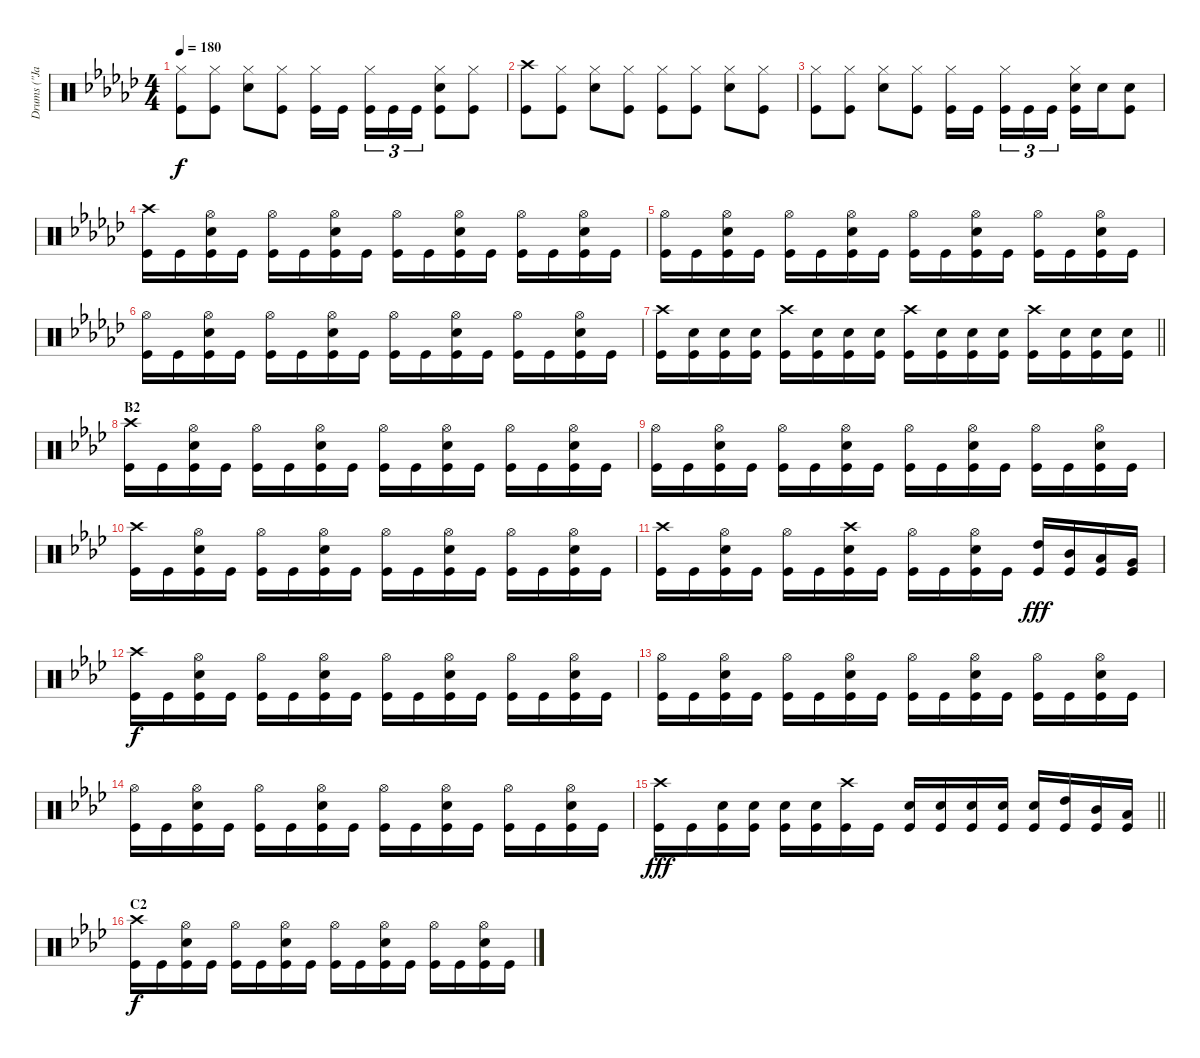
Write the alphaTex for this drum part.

\track ("Drums (\"Jane\")" "Drums (\"Ja") {instrument percussion}
\staff {score}
\articulation defaults
\ts (4 4)
\tempo 180
\clef neutral
\ks gb
("Hi-Hat (closed)" "Kick (hit)").8{dy f} ("Hi-Hat (closed)" "Kick (hit)").8 ("Hi-Hat (closed)" "Snare (hit) 2").8 ("Hi-Hat (closed)" "Kick (hit)").8 ("Hi-Hat (closed)" "Kick (hit)").16 "Kick (hit)".16{beam splitsecondary} ("Hi-Hat (closed)" "Kick (hit)").16{tu (3 2)} "Kick (hit)".16{tu (3 2)} "Kick (hit)".16{tu (3 2)} ("Hi-Hat (closed)" "Snare (hit) 2" "Kick (hit)").8 ("Hi-Hat (closed)" "Kick (hit)").8 |
("Crash high (hit)" "Kick (hit)").8 ("Hi-Hat (closed)" "Kick (hit)").8 ("Hi-Hat (closed)" "Snare (hit) 2").8 ("Hi-Hat (closed)" "Kick (hit)").8 ("Hi-Hat (closed)" "Kick (hit)").8 ("Hi-Hat (closed)" "Kick (hit)").8 ("Hi-Hat (closed)" "Snare (hit) 2").8 ("Hi-Hat (closed)" "Kick (hit)").8 |
("Hi-Hat (closed)" "Kick (hit)").8 ("Hi-Hat (closed)" "Kick (hit)").8 ("Hi-Hat (closed)" "Snare (hit) 2").8 ("Hi-Hat (closed)" "Kick (hit)").8 ("Hi-Hat (closed)" "Kick (hit)").16 "Kick (hit)".16{beam splitsecondary} ("Hi-Hat (closed)" "Kick (hit)").16{tu (3 2)} "Kick (hit)".16{tu (3 2)} "Kick (hit)".16{tu (3 2)} ("Hi-Hat (closed)" "Snare (hit) 2" "Kick (hit)").16 "Snare (hit) 2".16 ("Snare (hit) 2" "Kick (hit)").8 |
("Crash high (hit)" "Kick (hit)").16 "Kick (hit)".16 ("Hi-Hat (open)" "Snare (hit) 2" "Kick (hit)").16 "Kick (hit)".16 ("Hi-Hat (open)" "Kick (hit)").16 "Kick (hit)".16 ("Hi-Hat (open)" "Snare (hit) 2" "Kick (hit)").16 "Kick (hit)".16 ("Hi-Hat (open)" "Kick (hit)").16 "Kick (hit)".16 ("Hi-Hat (open)" "Snare (hit) 2" "Kick (hit)").16 "Kick (hit)".16 ("Hi-Hat (open)" "Kick (hit)").16 "Kick (hit)".16 ("Hi-Hat (open)" "Snare (hit) 2" "Kick (hit)").16 "Kick (hit)".16 |
("Hi-Hat (open)" "Kick (hit)").16 "Kick (hit)".16 ("Hi-Hat (open)" "Snare (hit) 2" "Kick (hit)").16 "Kick (hit)".16 ("Hi-Hat (open)" "Kick (hit)").16 "Kick (hit)".16 ("Hi-Hat (open)" "Snare (hit) 2" "Kick (hit)").16 "Kick (hit)".16 ("Hi-Hat (open)" "Kick (hit)").16 "Kick (hit)".16 ("Hi-Hat (open)" "Snare (hit) 2" "Kick (hit)").16 "Kick (hit)".16 ("Hi-Hat (open)" "Kick (hit)").16 "Kick (hit)".16 ("Hi-Hat (open)" "Snare (hit) 2" "Kick (hit)").16 "Kick (hit)".16 |
("Hi-Hat (open)" "Kick (hit)").16 "Kick (hit)".16 ("Hi-Hat (open)" "Snare (hit) 2" "Kick (hit)").16 "Kick (hit)".16 ("Hi-Hat (open)" "Kick (hit)").16 "Kick (hit)".16 ("Hi-Hat (open)" "Snare (hit) 2" "Kick (hit)").16 "Kick (hit)".16 ("Hi-Hat (open)" "Kick (hit)").16 "Kick (hit)".16 ("Hi-Hat (open)" "Snare (hit) 2" "Kick (hit)").16 "Kick (hit)".16 ("Hi-Hat (open)" "Kick (hit)").16 "Kick (hit)".16 ("Hi-Hat (open)" "Snare (hit) 2" "Kick (hit)").16 "Kick (hit)".16 |
\barLineRight lightlight
("Crash high (hit)" "Kick (hit)").16 ("Snare (hit) 2" "Kick (hit)").16 ("Snare (hit) 2" "Kick (hit)").16 ("Snare (hit) 2" "Kick (hit)").16 ("Crash high (hit)" "Kick (hit)").16 ("Snare (hit) 2" "Kick (hit)").16 ("Snare (hit) 2" "Kick (hit)").16 ("Snare (hit) 2" "Kick (hit)").16 ("Crash high (hit)" "Kick (hit)").16 ("Snare (hit) 2" "Kick (hit)").16 ("Snare (hit) 2" "Kick (hit)").16 ("Snare (hit) 2" "Kick (hit)").16 ("Crash high (hit)" "Kick (hit)").16 ("Snare (hit) 2" "Kick (hit)").16 ("Snare (hit) 2" "Kick (hit)").16 ("Snare (hit) 2" "Kick (hit)").16 |
\section ("" "B2")
\ks ab
("Crash high (hit)" "Kick (hit)").16 "Kick (hit)".16 ("Hi-Hat (open)" "Snare (hit) 2" "Kick (hit)").16 "Kick (hit)".16 ("Hi-Hat (open)" "Kick (hit)").16 "Kick (hit)".16 ("Hi-Hat (open)" "Snare (hit) 2" "Kick (hit)").16 "Kick (hit)".16 ("Hi-Hat (open)" "Kick (hit)").16 "Kick (hit)".16 ("Hi-Hat (open)" "Snare (hit) 2" "Kick (hit)").16 "Kick (hit)".16 ("Hi-Hat (open)" "Kick (hit)").16 "Kick (hit)".16 ("Hi-Hat (open)" "Snare (hit) 2" "Kick (hit)").16 "Kick (hit)".16 |
("Hi-Hat (open)" "Kick (hit)").16 "Kick (hit)".16 ("Hi-Hat (open)" "Snare (hit) 2" "Kick (hit)").16 "Kick (hit)".16 ("Hi-Hat (open)" "Kick (hit)").16 "Kick (hit)".16 ("Hi-Hat (open)" "Snare (hit) 2" "Kick (hit)").16 "Kick (hit)".16 ("Hi-Hat (open)" "Kick (hit)").16 "Kick (hit)".16 ("Hi-Hat (open)" "Snare (hit) 2" "Kick (hit)").16 "Kick (hit)".16 ("Hi-Hat (open)" "Kick (hit)").16 "Kick (hit)".16 ("Hi-Hat (open)" "Snare (hit) 2" "Kick (hit)").16 "Kick (hit)".16 |
("Crash high (hit)" "Kick (hit)").16 "Kick (hit)".16 ("Hi-Hat (open)" "Snare (hit) 2" "Kick (hit)").16 "Kick (hit)".16 ("Hi-Hat (open)" "Kick (hit)").16 "Kick (hit)".16 ("Hi-Hat (open)" "Snare (hit) 2" "Kick (hit)").16 "Kick (hit)".16 ("Hi-Hat (open)" "Kick (hit)").16 "Kick (hit)".16 ("Hi-Hat (open)" "Snare (hit) 2" "Kick (hit)").16 "Kick (hit)".16 ("Hi-Hat (open)" "Kick (hit)").16 "Kick (hit)".16 ("Hi-Hat (open)" "Snare (hit) 2" "Kick (hit)").16 "Kick (hit)".16 |
("Crash high (hit)" "Kick (hit)").16 "Kick (hit)".16 ("Hi-Hat (open)" "Snare (hit) 2" "Kick (hit)").16 "Kick (hit)".16 ("Hi-Hat (open)" "Kick (hit)").16 "Kick (hit)".16 ("Crash high (hit)" "Snare (hit) 2" "Kick (hit)").16 "Kick (hit)".16 ("Hi-Hat (open)" "Kick (hit)").16 "Kick (hit)".16 ("Hi-Hat (open)" "Snare (hit) 2" "Kick (hit)").16 "Kick (hit)".16 ("High Tom (hit)" "Kick (hit)").16{dy fff} ("Mid Tom (hit)" "Kick (hit)").16 ("Low Tom (hit)" "Kick (hit)").16 ("Very Low Tom (hit)" "Kick (hit)").16 |
("Crash high (hit)" "Kick (hit)").16{dy f} "Kick (hit)".16 ("Hi-Hat (open)" "Snare (hit) 2" "Kick (hit)").16 "Kick (hit)".16 ("Hi-Hat (open)" "Kick (hit)").16 "Kick (hit)".16 ("Hi-Hat (open)" "Snare (hit) 2" "Kick (hit)").16 "Kick (hit)".16 ("Hi-Hat (open)" "Kick (hit)").16 "Kick (hit)".16 ("Hi-Hat (open)" "Snare (hit) 2" "Kick (hit)").16 "Kick (hit)".16 ("Hi-Hat (open)" "Kick (hit)").16 "Kick (hit)".16 ("Hi-Hat (open)" "Snare (hit) 2" "Kick (hit)").16 "Kick (hit)".16 |
("Hi-Hat (open)" "Kick (hit)").16 "Kick (hit)".16 ("Hi-Hat (open)" "Snare (hit) 2" "Kick (hit)").16 "Kick (hit)".16 ("Hi-Hat (open)" "Kick (hit)").16 "Kick (hit)".16 ("Hi-Hat (open)" "Snare (hit) 2" "Kick (hit)").16 "Kick (hit)".16 ("Hi-Hat (open)" "Kick (hit)").16 "Kick (hit)".16 ("Hi-Hat (open)" "Snare (hit) 2" "Kick (hit)").16 "Kick (hit)".16 ("Hi-Hat (open)" "Kick (hit)").16 "Kick (hit)".16 ("Hi-Hat (open)" "Snare (hit) 2" "Kick (hit)").16 "Kick (hit)".16 |
("Hi-Hat (open)" "Kick (hit)").16 "Kick (hit)".16 ("Hi-Hat (open)" "Snare (hit) 2" "Kick (hit)").16 "Kick (hit)".16 ("Hi-Hat (open)" "Kick (hit)").16 "Kick (hit)".16 ("Hi-Hat (open)" "Snare (hit) 2" "Kick (hit)").16 "Kick (hit)".16 ("Hi-Hat (open)" "Kick (hit)").16 "Kick (hit)".16 ("Hi-Hat (open)" "Snare (hit) 2" "Kick (hit)").16 "Kick (hit)".16 ("Hi-Hat (open)" "Kick (hit)").16 "Kick (hit)".16 ("Hi-Hat (open)" "Snare (hit) 2" "Kick (hit)").16 "Kick (hit)".16 |
\barLineRight lightlight
("Crash high (hit)" "Kick (hit)").16{dy fff} "Kick (hit)".16 ("Snare (hit) 2" "Kick (hit)").16 ("Snare (hit) 2" "Kick (hit)").16 ("Snare (hit) 2" "Kick (hit)").16 ("Snare (hit) 2" "Kick (hit)").16 ("Crash high (hit)" "Kick (hit)").16 "Kick (hit)".16 ("Snare (hit) 2" "Kick (hit)").16 ("Snare (hit) 2" "Kick (hit)").16 ("Snare (hit) 2" "Kick (hit)").16 ("Snare (hit) 2" "Kick (hit)").16 ("Snare (hit) 2" "Kick (hit)").16 ("High Tom (hit)" "Kick (hit)").16 ("Mid Tom (hit)" "Kick (hit)").16 ("Low Tom (hit)" "Kick (hit)").16 |
\section ("" "C2")
("Crash high (hit)" "Kick (hit)").16{dy f} "Kick (hit)".16 ("Hi-Hat (open)" "Snare (hit) 2" "Kick (hit)").16 "Kick (hit)".16 ("Hi-Hat (open)" "Kick (hit)").16 "Kick (hit)".16 ("Hi-Hat (open)" "Snare (hit) 2" "Kick (hit)").16 "Kick (hit)".16 ("Hi-Hat (open)" "Kick (hit)").16 "Kick (hit)".16 ("Hi-Hat (open)" "Snare (hit) 2" "Kick (hit)").16 "Kick (hit)".16 ("Hi-Hat (open)" "Kick (hit)").16 "Kick (hit)".16 ("Hi-Hat (open)" "Snare (hit) 2" "Kick (hit)").16 "Kick (hit)".16
